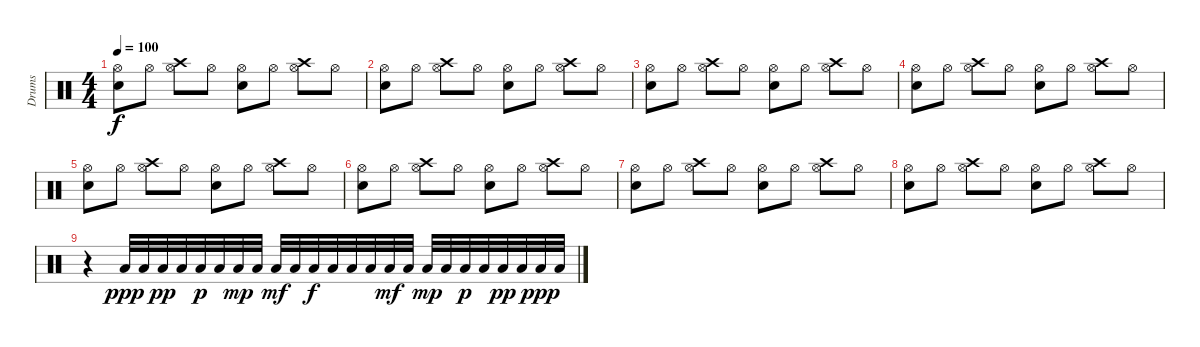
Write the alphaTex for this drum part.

\track ("Drums" "Drums") {instrument percussion}
\staff {score}
\articulation defaults
\ts (4 4)
\tempo 100
\clef neutral
\ks c
("Snare (hit) 2" "Hi-Hat (open)").8{dy f} "Hi-Hat (open)".8 ("Crash high (hit)" "Hi-Hat (open)").8 "Hi-Hat (open)".8 ("Snare (hit) 2" "Hi-Hat (open)").8 "Hi-Hat (open)".8 ("Crash high (hit)" "Hi-Hat (open)").8 "Hi-Hat (open)".8 |
("Snare (hit) 2" "Hi-Hat (open)").8 "Hi-Hat (open)".8 ("Crash high (hit)" "Hi-Hat (open)").8 "Hi-Hat (open)".8 ("Snare (hit) 2" "Hi-Hat (open)").8 "Hi-Hat (open)".8 ("Crash high (hit)" "Hi-Hat (open)").8 "Hi-Hat (open)".8 |
("Snare (hit) 2" "Hi-Hat (open)").8 "Hi-Hat (open)".8 ("Crash high (hit)" "Hi-Hat (open)").8 "Hi-Hat (open)".8 ("Snare (hit) 2" "Hi-Hat (open)").8 "Hi-Hat (open)".8 ("Crash high (hit)" "Hi-Hat (open)").8 "Hi-Hat (open)".8 |
("Snare (hit) 2" "Hi-Hat (open)").8 "Hi-Hat (open)".8 ("Crash high (hit)" "Hi-Hat (open)").8 "Hi-Hat (open)".8 ("Snare (hit) 2" "Hi-Hat (open)").8 "Hi-Hat (open)".8 ("Crash high (hit)" "Hi-Hat (open)").8 "Hi-Hat (open)".8 |
("Snare (hit) 2" "Hi-Hat (open)").8 "Hi-Hat (open)".8 ("Crash high (hit)" "Hi-Hat (open)").8 "Hi-Hat (open)".8 ("Snare (hit) 2" "Hi-Hat (open)").8 "Hi-Hat (open)".8 ("Crash high (hit)" "Hi-Hat (open)").8 "Hi-Hat (open)".8 |
("Snare (hit) 2" "Hi-Hat (open)").8 "Hi-Hat (open)".8 ("Crash high (hit)" "Hi-Hat (open)").8 "Hi-Hat (open)".8 ("Snare (hit) 2" "Hi-Hat (open)").8 "Hi-Hat (open)".8 ("Crash high (hit)" "Hi-Hat (open)").8 "Hi-Hat (open)".8 |
("Snare (hit) 2" "Hi-Hat (open)").8 "Hi-Hat (open)".8 ("Crash high (hit)" "Hi-Hat (open)").8 "Hi-Hat (open)".8 ("Snare (hit) 2" "Hi-Hat (open)").8 "Hi-Hat (open)".8 ("Crash high (hit)" "Hi-Hat (open)").8 "Hi-Hat (open)".8 |
("Snare (hit) 2" "Hi-Hat (open)").8 "Hi-Hat (open)".8 ("Crash high (hit)" "Hi-Hat (open)").8 "Hi-Hat (open)".8 ("Snare (hit) 2" "Hi-Hat (open)").8 "Hi-Hat (open)".8 ("Crash high (hit)" "Hi-Hat (open)").8 "Hi-Hat (open)".8 |
r.4 "Low Floor Tom (hit)".32{dy ppp} "Low Floor Tom (hit)".32 "Low Floor Tom (hit)".32{dy pp} "Low Floor Tom (hit)".32 "Low Floor Tom (hit)".32{dy p} "Low Floor Tom (hit)".32 "Low Floor Tom (hit)".32{dy mp} "Low Floor Tom (hit)".32 "Low Floor Tom (hit)".32{dy mf} "Low Floor Tom (hit)".32 "Low Floor Tom (hit)".32{dy f} "Low Floor Tom (hit)".32 "Low Floor Tom (hit)".32 "Low Floor Tom (hit)".32 "Low Floor Tom (hit)".32{dy mf} "Low Floor Tom (hit)".32 "Low Floor Tom (hit)".32{dy mp} "Low Floor Tom (hit)".32 "Low Floor Tom (hit)".32{dy p} "Low Floor Tom (hit)".32 "Low Floor Tom (hit)".32{dy pp} "Low Floor Tom (hit)".32 "Low Floor Tom (hit)".32{dy ppp} "Low Floor Tom (hit)".32
